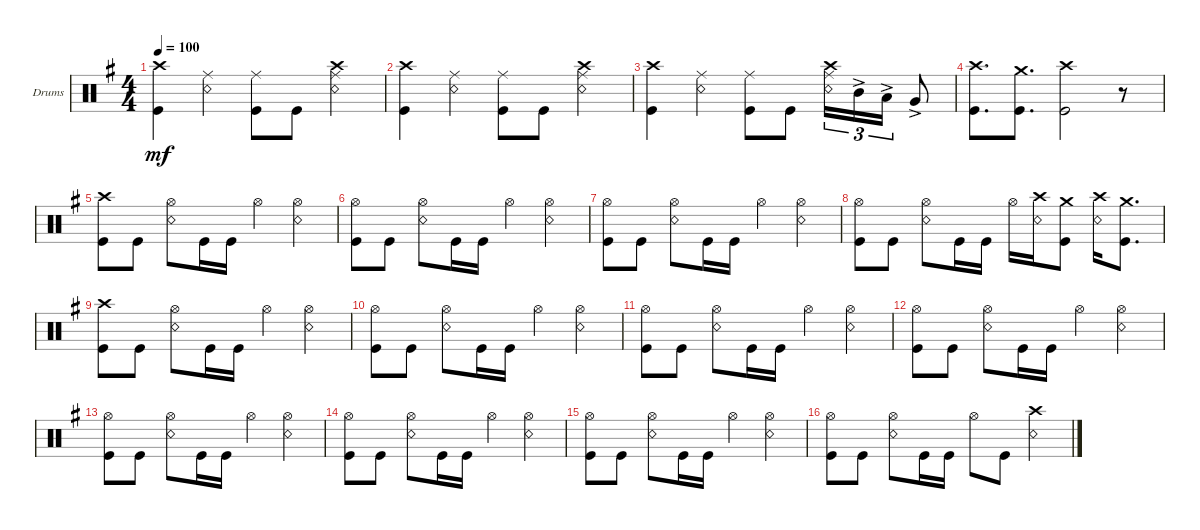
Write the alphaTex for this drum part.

\defaultSystemsLayout 4
\bracketExtendMode groupsimilarinstruments
\firstSystemTrackNameOrientation horizontal
\otherSystemsTrackNameOrientation horizontal
\track ("Drumkit" "Drums") {instrument percussion}
\staff {score}
\articulation defaults
\ts (4 4)
\tempo 100
\clef neutral
\ks eminor
("Kick (hit)" "Crash high (hit)").4{dy mf} ("Ride (middle)" "Snare (rim shot)").4 ("Kick (hit)" "Ride (middle)").8 "Kick (hit)".8 ("Ride (middle)" "Snare (rim shot)" "Crash high (hit)").4 |
("Kick (hit)" "Crash high (hit)").4 ("Ride (middle)" "Snare (rim shot)").4 ("Kick (hit)" "Ride (middle)").8 "Kick (hit)".8 ("Ride (middle)" "Snare (rim shot)" "Crash high (hit)").4 |
("Kick (hit)" "Crash high (hit)").4 ("Ride (middle)" "Snare (rim shot)").4 ("Kick (hit)" "Ride (middle)").8 "Kick (hit)".8 ("Ride (middle)" "Snare (rim shot)" "Crash high (hit)").16{tu (3 2)} "Mid Tom (hit)"{ac}.16{tu (3 2)} "Low Tom (hit)"{ac}.16{tu (3 2)} "Very Low Tom (hit)"{ac}.8 |
("Kick (hit)" "Crash high (hit)").8{d} ("Crash medium (hit)" "Kick (hit)").8{d} ("Kick (hit)" "Crash high (hit)").2 r.8 |
("Kick (hit)" "Crash high (hit)").8 "Kick (hit)".8 ("Hi-Hat (open)" "Snare (rim shot)").8 "Kick (hit)".16 "Kick (hit)".16 "Hi-Hat (open)".4 ("Hi-Hat (open)" "Snare (rim shot)").4 |
("Kick (hit)" "Hi-Hat (open)").8 "Kick (hit)".8 ("Hi-Hat (open)" "Snare (rim shot)").8 "Kick (hit)".16 "Kick (hit)".16 "Hi-Hat (open)".4 ("Hi-Hat (open)" "Snare (rim shot)").4 |
("Kick (hit)" "Hi-Hat (open)").8 "Kick (hit)".8 ("Hi-Hat (open)" "Snare (rim shot)").8 "Kick (hit)".16 "Kick (hit)".16 "Hi-Hat (open)".4 ("Hi-Hat (open)" "Snare (rim shot)").4 |
("Kick (hit)" "Hi-Hat (open)").8 "Kick (hit)".8 ("Hi-Hat (open)" "Snare (rim shot)").8 "Kick (hit)".16 "Kick (hit)".16 "Hi-Hat (open)".16 ("Snare (rim shot)" "Crash high (hit)").16 ("Kick (hit)" "Crash medium (hit)").8 ("Snare (rim shot)" "Crash high (hit)").16 ("Kick (hit)" "Crash medium (hit)").8{d} |
("Kick (hit)" "Crash high (hit)").8 "Kick (hit)".8 ("Hi-Hat (open)" "Snare (rim shot)").8 "Kick (hit)".16 "Kick (hit)".16 "Hi-Hat (open)".4 ("Hi-Hat (open)" "Snare (rim shot)").4 |
("Kick (hit)" "Hi-Hat (open)").8 "Kick (hit)".8 ("Hi-Hat (open)" "Snare (rim shot)").8 "Kick (hit)".16 "Kick (hit)".16 "Hi-Hat (open)".4 ("Hi-Hat (open)" "Snare (rim shot)").4 |
("Kick (hit)" "Hi-Hat (open)").8 "Kick (hit)".8 ("Hi-Hat (open)" "Snare (rim shot)").8 "Kick (hit)".16 "Kick (hit)".16 "Hi-Hat (open)".4 ("Hi-Hat (open)" "Snare (rim shot)").4 |
("Kick (hit)" "Hi-Hat (open)").8 "Kick (hit)".8 ("Hi-Hat (open)" "Snare (rim shot)").8 "Kick (hit)".16 "Kick (hit)".16 "Hi-Hat (open)".4 ("Hi-Hat (open)" "Snare (rim shot)").4 |
("Kick (hit)" "Hi-Hat (open)").8 "Kick (hit)".8 ("Hi-Hat (open)" "Snare (rim shot)").8 "Kick (hit)".16 "Kick (hit)".16 "Hi-Hat (open)".4 ("Hi-Hat (open)" "Snare (rim shot)").4 |
("Kick (hit)" "Hi-Hat (open)").8 "Kick (hit)".8 ("Hi-Hat (open)" "Snare (rim shot)").8 "Kick (hit)".16 "Kick (hit)".16 "Hi-Hat (open)".4 ("Hi-Hat (open)" "Snare (rim shot)").4 |
("Kick (hit)" "Hi-Hat (open)").8 "Kick (hit)".8 ("Hi-Hat (open)" "Snare (rim shot)").8 "Kick (hit)".16 "Kick (hit)".16 "Hi-Hat (open)".4 ("Hi-Hat (open)" "Snare (rim shot)").4 |
("Kick (hit)" "Hi-Hat (open)").8 "Kick (hit)".8 ("Hi-Hat (open)" "Snare (rim shot)").8 "Kick (hit)".16 "Kick (hit)".16 "Hi-Hat (open)".8 "Kick (hit)".8 ("Snare (rim shot)" "Crash high (hit)").4
